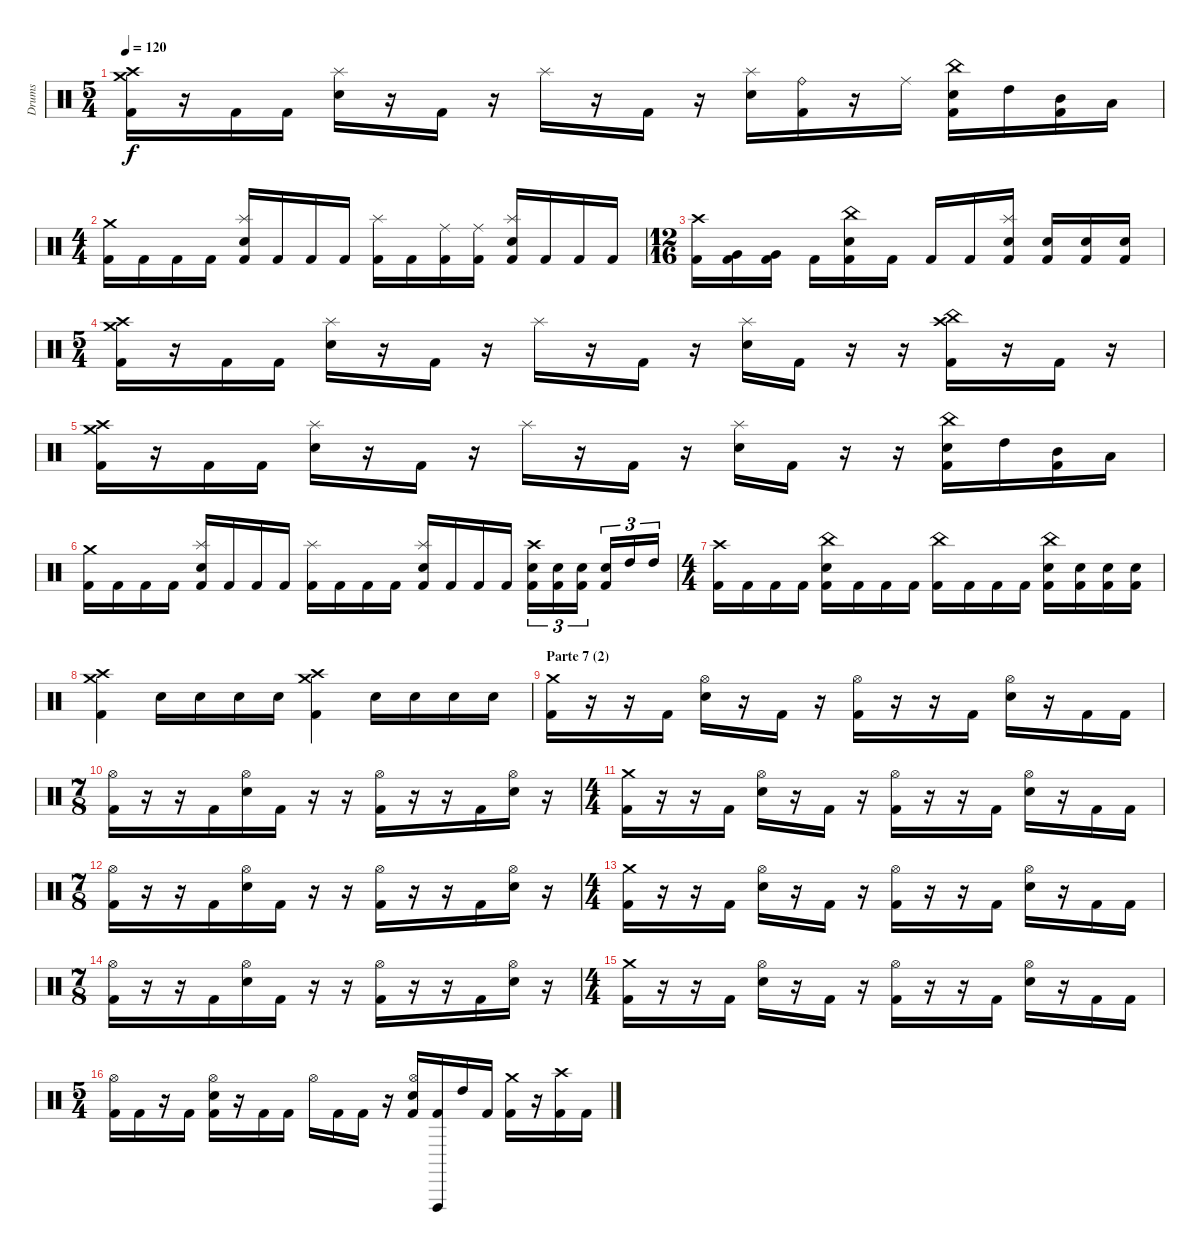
\track ("Drums" "Drums") {instrument percussion}
\staff {score}
\articulation defaults
\ts (5 4)
\tempo 120
\clef neutral
\ks c
("Crash medium (hit)" "Crash high (hit)" "Kick (hit) 2").16{dy f} r.16 "Kick (hit) 2".16 "Kick (hit) 2".16 ("Splash (hit)" "Electric Snare (hit)").16 r.16 "Kick (hit) 2".16 r.16 "Splash (hit)".16 r.16 "Kick (hit) 2".16 r.16 ("Splash (hit)" "Electric Snare (hit)").16 ("Ride (bell)" "Kick (hit) 2").16 r.16 "Ride (middle)".16 ("China (hit)" "Electric Snare (hit)" "Kick (hit) 2").16 "High Tom (hit)".16 ("Mid Tom (hit)" "Kick (hit) 2").16 "Low Tom (hit)".16 |
\ts (4 4)
("Crash medium (hit)" "Kick (hit) 2").16 "Kick (hit) 2".16 "Kick (hit) 2".16 "Kick (hit) 2".16 ("Splash (hit)" "Electric Snare (hit)" "Kick (hit) 2").16 "Kick (hit) 2".16 "Kick (hit) 2".16 "Kick (hit) 2".16 ("Splash (hit)" "Kick (hit) 2").16 "Kick (hit) 2".16 ("Ride (middle)" "Kick (hit) 2").16 ("Ride (middle)" "Kick (hit) 2").16 ("Splash (hit)" "Electric Snare (hit)" "Kick (hit) 2").16 "Kick (hit) 2".16 "Kick (hit) 2".16 "Kick (hit) 2".16 |
\ts (12 16)
("Crash high (hit)" "Kick (hit) 2").16 ("Very Low Tom (hit)" "Kick (hit) 2").16 ("Very Low Tom (hit)" "Kick (hit) 2").16 "Kick (hit) 2".16 ("China (hit)" "Electric Snare (hit)" "Kick (hit) 2").16 "Kick (hit) 2".16 "Kick (hit) 2".16 "Kick (hit) 2".16 ("Splash (hit)" "Electric Snare (hit)" "Kick (hit) 2").16 ("Electric Snare (hit)" "Kick (hit) 2").16 ("Electric Snare (hit)" "Kick (hit) 2").16 ("Electric Snare (hit)" "Kick (hit) 2").16 |
\ts (5 4)
("Crash medium (hit)" "Crash high (hit)" "Kick (hit) 2").16 r.16 "Kick (hit) 2".16 "Kick (hit) 2".16 ("Splash (hit)" "Electric Snare (hit)").16 r.16 "Kick (hit) 2".16 r.16 "Splash (hit)".16 r.16 "Kick (hit) 2".16 r.16 ("Splash (hit)" "Electric Snare (hit)").16 "Kick (hit) 2".16 r.16 r.16 ("China (hit)" "Crash high (hit)" "Kick (hit) 2").16 r.16 "Kick (hit) 2".16 r.16 |
("Crash medium (hit)" "Crash high (hit)" "Kick (hit) 2").16 r.16 "Kick (hit) 2".16 "Kick (hit) 2".16 ("Splash (hit)" "Electric Snare (hit)").16 r.16 "Kick (hit) 2".16 r.16 "Splash (hit)".16 r.16 "Kick (hit) 2".16 r.16 ("Splash (hit)" "Electric Snare (hit)").16 "Kick (hit) 2".16 r.16 r.16 ("China (hit)" "Electric Snare (hit)" "Kick (hit) 2").16 "High Tom (hit)".16 ("Mid Tom (hit)" "Kick (hit) 2").16 "Low Tom (hit)".16 |
("Crash medium (hit)" "Kick (hit) 2").16 "Kick (hit) 2".16 "Kick (hit) 2".16 "Kick (hit) 2".16 ("Splash (hit)" "Electric Snare (hit)" "Kick (hit) 2").16 "Kick (hit) 2".16 "Kick (hit) 2".16 "Kick (hit) 2".16 ("Splash (hit)" "Kick (hit) 2").16 "Kick (hit) 2".16 "Kick (hit) 2".16 "Kick (hit) 2".16 ("Splash (hit)" "Electric Snare (hit)" "Kick (hit) 2").16 "Kick (hit) 2".16 "Kick (hit) 2".16 "Kick (hit) 2".16 ("Crash high (hit)" "Electric Snare (hit)" "Kick (hit) 2").16{tu (3 2)} ("Electric Snare (hit)" "Kick (hit) 2").16{tu (3 2)} ("Electric Snare (hit)" "Kick (hit) 2").16{tu (3 2)} ("Electric Snare (hit)" "Kick (hit) 2").16{tu (3 2)} "High Tom (hit)".16{tu (3 2)} "High Tom (hit)".16{tu (3 2)} |
\ts (4 4)
("Crash high (hit)" "Kick (hit) 2").16 "Kick (hit) 2".16 "Kick (hit) 2".16 "Kick (hit) 2".16 ("China (hit)" "Electric Snare (hit)" "Kick (hit) 2").16 "Kick (hit) 2".16 "Kick (hit) 2".16 "Kick (hit) 2".16 ("China (hit)" "Kick (hit) 2").16 "Kick (hit) 2".16 "Kick (hit) 2".16 "Kick (hit) 2".16 ("China (hit)" "Electric Snare (hit)" "Kick (hit) 2").16 ("Electric Snare (hit)" "Kick (hit) 2").16 ("Electric Snare (hit)" "Kick (hit) 2").16 ("Electric Snare (hit)" "Kick (hit) 2").16 |
("Crash medium (hit)" "Crash high (hit)" "Kick (hit) 2").4 "Electric Snare (hit)".16 "Electric Snare (hit)".16 "Electric Snare (hit)".16 "Electric Snare (hit)".16 ("Crash medium (hit)" "Crash high (hit)" "Kick (hit) 2").4 "Electric Snare (hit)".16 "Electric Snare (hit)".16 "Electric Snare (hit)".16 "Electric Snare (hit)".16 |
\section ("" "Parte 7 (2)")
("Crash medium (hit)" "Kick (hit) 2").16 r.16 r.16 "Kick (hit) 2".16 ("Hi-Hat (open)" "Electric Snare (hit)").16 r.16 "Kick (hit) 2".16 r.16 ("Hi-Hat (open)" "Kick (hit) 2").16 r.16 r.16 "Kick (hit) 2".16 ("Hi-Hat (open)" "Electric Snare (hit)").16 r.16 "Kick (hit) 2".16 "Kick (hit) 2".16 |
\ts (7 8)
("Hi-Hat (open)" "Kick (hit) 2").16 r.16 r.16 "Kick (hit) 2".16 ("Hi-Hat (open)" "Electric Snare (hit)").16 "Kick (hit) 2".16 r.16 r.16 ("Hi-Hat (open)" "Kick (hit) 2").16 r.16 r.16 "Kick (hit) 2".16 ("Hi-Hat (open)" "Electric Snare (hit)").16 r.16 |
\ts (4 4)
("Crash medium (hit)" "Kick (hit) 2").16 r.16 r.16 "Kick (hit) 2".16 ("Hi-Hat (open)" "Electric Snare (hit)").16 r.16 "Kick (hit) 2".16 r.16 ("Hi-Hat (open)" "Kick (hit) 2").16 r.16 r.16 "Kick (hit) 2".16 ("Hi-Hat (open)" "Electric Snare (hit)").16 r.16 "Kick (hit) 2".16 "Kick (hit) 2".16 |
\ts (7 8)
("Hi-Hat (open)" "Kick (hit) 2").16 r.16 r.16 "Kick (hit) 2".16 ("Hi-Hat (open)" "Electric Snare (hit)").16 "Kick (hit) 2".16 r.16 r.16 ("Hi-Hat (open)" "Kick (hit) 2").16 r.16 r.16 "Kick (hit) 2".16 ("Hi-Hat (open)" "Electric Snare (hit)").16 r.16 |
\ts (4 4)
("Crash medium (hit)" "Kick (hit) 2").16 r.16 r.16 "Kick (hit) 2".16 ("Hi-Hat (open)" "Electric Snare (hit)").16 r.16 "Kick (hit) 2".16 r.16 ("Hi-Hat (open)" "Kick (hit) 2").16 r.16 r.16 "Kick (hit) 2".16 ("Hi-Hat (open)" "Electric Snare (hit)").16 r.16 "Kick (hit) 2".16 "Kick (hit) 2".16 |
\ts (7 8)
("Hi-Hat (open)" "Kick (hit) 2").16 r.16 r.16 "Kick (hit) 2".16 ("Hi-Hat (open)" "Electric Snare (hit)").16 "Kick (hit) 2".16 r.16 r.16 ("Hi-Hat (open)" "Kick (hit) 2").16 r.16 r.16 "Kick (hit) 2".16 ("Hi-Hat (open)" "Electric Snare (hit)").16 r.16 |
\ts (4 4)
("Crash medium (hit)" "Kick (hit) 2").16 r.16 r.16 "Kick (hit) 2".16 ("Hi-Hat (open)" "Electric Snare (hit)").16 r.16 "Kick (hit) 2".16 r.16 ("Hi-Hat (open)" "Kick (hit) 2").16 r.16 r.16 "Kick (hit) 2".16 ("Hi-Hat (open)" "Electric Snare (hit)").16 r.16 "Kick (hit) 2".16 "Kick (hit) 2".16 |
\ts (5 4)
("Hi-Hat (open)" "Kick (hit) 2").16 "Kick (hit) 2".16 r.16 "Kick (hit) 2".16 ("Hi-Hat (open)" "Electric Snare (hit)" "Kick (hit) 2").16 r.16 "Kick (hit) 2".16 "Kick (hit) 2".16 "Hi-Hat (open)".16 "Kick (hit) 2".16 "Kick (hit) 2".16 r.16 ("Hi-Hat (open)" "Electric Snare (hit)" "Kick (hit) 2").16 ("Vibraslap (hit)" "Kick (hit) 2").16 "High Tom (hit)".16 "Kick (hit) 2".16 ("Crash medium (hit)" "Kick (hit) 2").16 r.16 ("Crash high (hit)" "Kick (hit) 2").16 "Kick (hit) 2".16
